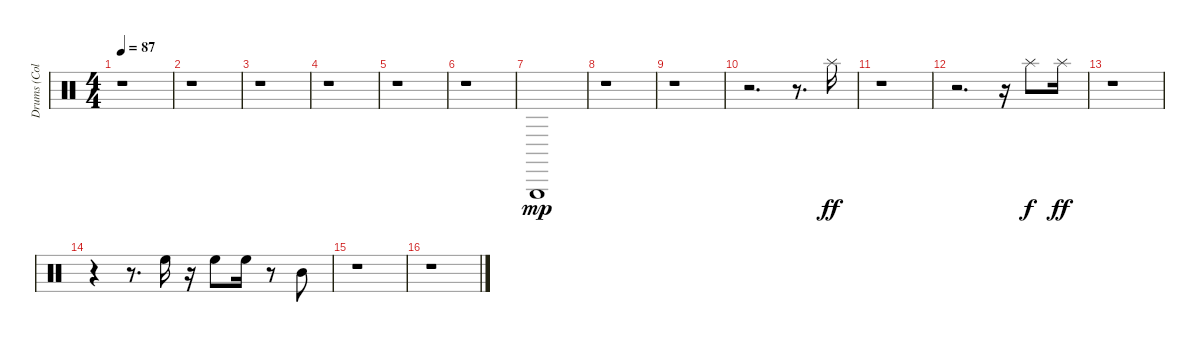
\track ("Drums (Collins)" "Drums (Col") {instrument percussion}
\staff {score}
\articulation defaults
\ts (4 4)
\tempo 87
\clef neutral
\ks c
r.1{dy mp} |
r.1 |
r.1 |
r.1 |
r.1 |
r.1 |
"Triangle (hit)".1 |
r.1 |
r.1 |
r.2{d} r.8{d} "Splash (hit)".16{dy ff} |
r.1 |
r.2{d} r.16 "Splash (hit)".8{dy f} "Splash (hit)".16{dy ff} |
r.1 |
r.4 r.8{d} "High Floor Tom (hit)".16 r.16 "High Floor Tom (hit)".8 "High Floor Tom (hit)".16 r.8 "Mid Tom (hit)".8 |
r.1 |
r.1
